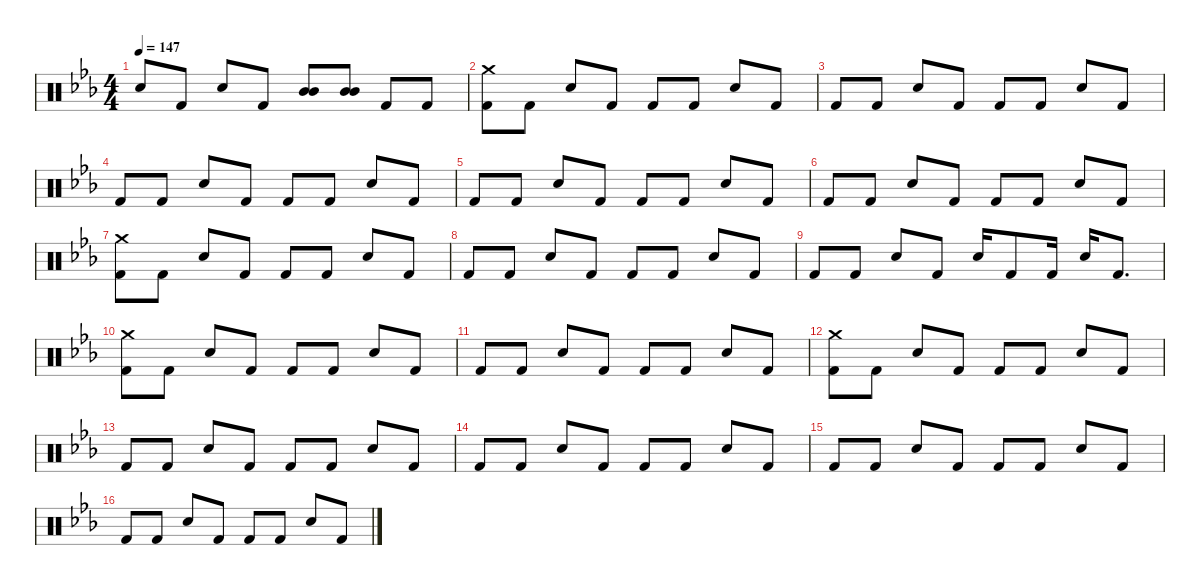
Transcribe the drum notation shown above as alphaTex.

\defaultSystemsLayout 4
\hideDynamics
\bracketExtendMode nobrackets
\singleTrackTrackNamePolicy hidden
\multiTrackTrackNamePolicy hidden
\firstSystemTrackNameMode fullname
\firstSystemTrackNameOrientation horizontal
\otherSystemsTrackNameOrientation horizontal
\track ("Beats" "drm.") {instrument percussion}
\staff {score}
\articulation defaults
\ts (4 4)
\tempo 147
\clef neutral
\ks eb "Snare (hit) 2"{acc forcenatural}.8{dy f beam Up} "Kick (hit) 2"{acc forcenatural}.8{beam Up} "Snare (hit) 2"{acc forcenatural}.8{beam Up} "Kick (hit) 2"{acc forcenatural}.8{beam Up}
("Mid Tom (hit)"{acc forcenatural} "Mid Tom (hit)"{acc forcenatural}).8{beam Up} ("Mid Tom (hit)"{acc forcenatural} "Mid Tom (hit)"{acc forcenatural}).8{beam Up} "Kick (hit) 2"{acc forcenatural}.8{beam Up} "Kick (hit) 2"{acc forcenatural}.8{beam Up} |
("Crash medium (hit)"{acc forcenatural} "Kick (hit) 2"{acc forcenatural}).8{beam Down} "Kick (hit) 2"{acc forcenatural}.8{beam Down} "Snare (hit) 2"{acc forcenatural}.8{beam Up} "Kick (hit) 2"{acc forcenatural}.8{beam Up} "Kick (hit) 2"{acc forcenatural}.8{beam Up} "Kick (hit) 2"{acc forcenatural}.8{beam Up} "Snare (hit) 2"{acc forcenatural}.8{beam Up} "Kick (hit) 2"{acc forcenatural}.8{beam Up} |
"Kick (hit) 2"{acc forcenatural}.8{beam Up} "Kick (hit) 2"{acc forcenatural}.8{beam Up} "Snare (hit) 2"{acc forcenatural}.8{beam Up} "Kick (hit) 2"{acc forcenatural}.8{beam Up} "Kick (hit) 2"{acc forcenatural}.8{beam Up} "Kick (hit) 2"{acc forcenatural}.8{beam Up} "Snare (hit) 2"{acc forcenatural}.8{beam Up} "Kick (hit) 2"{acc forcenatural}.8{beam Up} |
"Kick (hit) 2"{acc forcenatural}.8{beam Up} "Kick (hit) 2"{acc forcenatural}.8{beam Up} "Snare (hit) 2"{acc forcenatural}.8{beam Up} "Kick (hit) 2"{acc forcenatural}.8{beam Up} "Kick (hit) 2"{acc forcenatural}.8{beam Up} "Kick (hit) 2"{acc forcenatural}.8{beam Up} "Snare (hit) 2"{acc forcenatural}.8{beam Up} "Kick (hit) 2"{acc forcenatural}.8{beam Up} |
"Kick (hit) 2"{acc forcenatural}.8{beam Up} "Kick (hit) 2"{acc forcenatural}.8{beam Up} "Snare (hit) 2"{acc forcenatural}.8{beam Up} "Kick (hit) 2"{acc forcenatural}.8{beam Up} "Kick (hit) 2"{acc forcenatural}.8{beam Up} "Kick (hit) 2"{acc forcenatural}.8{beam Up} "Snare (hit) 2"{acc forcenatural}.8{beam Up} "Kick (hit) 2"{acc forcenatural}.8{beam Up} |
"Kick (hit) 2"{acc forcenatural}.8{beam Up} "Kick (hit) 2"{acc forcenatural}.8{beam Up} "Snare (hit) 2"{acc forcenatural}.8{beam Up} "Kick (hit) 2"{acc forcenatural}.8{beam Up} "Kick (hit) 2"{acc forcenatural}.8{beam Up} "Kick (hit) 2"{acc forcenatural}.8{beam Up} "Snare (hit) 2"{acc forcenatural}.8{beam Up} "Kick (hit) 2"{acc forcenatural}.8{beam Up} |
("Crash medium (hit)"{acc forcenatural} "Kick (hit) 2"{acc forcenatural}).8{beam Down} "Kick (hit) 2"{acc forcenatural}.8{beam Down} "Snare (hit) 2"{acc forcenatural}.8{beam Up} "Kick (hit) 2"{acc forcenatural}.8{beam Up} "Kick (hit) 2"{acc forcenatural}.8{beam Up} "Kick (hit) 2"{acc forcenatural}.8{beam Up} "Snare (hit) 2"{acc forcenatural}.8{beam Up} "Kick (hit) 2"{acc forcenatural}.8{beam Up} |
"Kick (hit) 2"{acc forcenatural}.8{beam Up} "Kick (hit) 2"{acc forcenatural}.8{beam Up} "Snare (hit) 2"{acc forcenatural}.8{beam Up} "Kick (hit) 2"{acc forcenatural}.8{beam Up} "Kick (hit) 2"{acc forcenatural}.8{beam Up} "Kick (hit) 2"{acc forcenatural}.8{beam Up} "Snare (hit) 2"{acc forcenatural}.8{beam Up} "Kick (hit) 2"{acc forcenatural}.8{beam Up} |
"Kick (hit) 2"{acc forcenatural}.8{beam Up} "Kick (hit) 2"{acc forcenatural}.8{beam Up} "Snare (hit) 2"{acc forcenatural}.8{beam Up} "Kick (hit) 2"{acc forcenatural}.8{beam Up} "Snare (hit) 2"{acc forcenatural}.16{beam Up} "Kick (hit) 2"{acc forcenatural}.8{beam Up} "Kick (hit) 2"{acc forcenatural}.16{beam Up} "Snare (hit) 2"{acc forcenatural}.16{beam Up} "Kick (hit) 2"{acc forcenatural}.8{d beam Up} |
("Crash medium (hit)"{acc forcenatural} "Kick (hit) 2"{acc forcenatural}).8{beam Down} "Kick (hit) 2"{acc forcenatural}.8{beam Down} "Snare (hit) 2"{acc forcenatural}.8{beam Up} "Kick (hit) 2"{acc forcenatural}.8{beam Up} "Kick (hit) 2"{acc forcenatural}.8{beam Up} "Kick (hit) 2"{acc forcenatural}.8{beam Up} "Snare (hit) 2"{acc forcenatural}.8{beam Up} "Kick (hit) 2"{acc forcenatural}.8{beam Up} |
"Kick (hit) 2"{acc forcenatural}.8{beam Up} "Kick (hit) 2"{acc forcenatural}.8{beam Up} "Snare (hit) 2"{acc forcenatural}.8{beam Up} "Kick (hit) 2"{acc forcenatural}.8{beam Up} "Kick (hit) 2"{acc forcenatural}.8{beam Up} "Kick (hit) 2"{acc forcenatural}.8{beam Up} "Snare (hit) 2"{acc forcenatural}.8{beam Up} "Kick (hit) 2"{acc forcenatural}.8{beam Up} |
("Crash medium (hit)"{acc forcenatural} "Kick (hit) 2"{acc forcenatural}).8{beam Down} "Kick (hit) 2"{acc forcenatural}.8{beam Down} "Snare (hit) 2"{acc forcenatural}.8{beam Up} "Kick (hit) 2"{acc forcenatural}.8{beam Up} "Kick (hit) 2"{acc forcenatural}.8{beam Up} "Kick (hit) 2"{acc forcenatural}.8{beam Up} "Snare (hit) 2"{acc forcenatural}.8{beam Up} "Kick (hit) 2"{acc forcenatural}.8{beam Up} |
"Kick (hit) 2"{acc forcenatural}.8{beam Up} "Kick (hit) 2"{acc forcenatural}.8{beam Up} "Snare (hit) 2"{acc forcenatural}.8{beam Up} "Kick (hit) 2"{acc forcenatural}.8{beam Up} "Kick (hit) 2"{acc forcenatural}.8{beam Up} "Kick (hit) 2"{acc forcenatural}.8{beam Up} "Snare (hit) 2"{acc forcenatural}.8{beam Up} "Kick (hit) 2"{acc forcenatural}.8{beam Up} |
"Kick (hit) 2"{acc forcenatural}.8{beam Up} "Kick (hit) 2"{acc forcenatural}.8{beam Up} "Snare (hit) 2"{acc forcenatural}.8{beam Up} "Kick (hit) 2"{acc forcenatural}.8{beam Up} "Kick (hit) 2"{acc forcenatural}.8{beam Up} "Kick (hit) 2"{acc forcenatural}.8{beam Up} "Snare (hit) 2"{acc forcenatural}.8{beam Up} "Kick (hit) 2"{acc forcenatural}.8{beam Up} |
"Kick (hit) 2"{acc forcenatural}.8{beam Up} "Kick (hit) 2"{acc forcenatural}.8{beam Up} "Snare (hit) 2"{acc forcenatural}.8{beam Up} "Kick (hit) 2"{acc forcenatural}.8{beam Up} "Kick (hit) 2"{acc forcenatural}.8{beam Up} "Kick (hit) 2"{acc forcenatural}.8{beam Up} "Snare (hit) 2"{acc forcenatural}.8{beam Up} "Kick (hit) 2"{acc forcenatural}.8{beam Up} |
"Kick (hit) 2"{acc forcenatural}.8{beam Up} "Kick (hit) 2"{acc forcenatural}.8{beam Up} "Snare (hit) 2"{acc forcenatural}.8{beam Up} "Kick (hit) 2"{acc forcenatural}.8{beam Up} "Kick (hit) 2"{acc forcenatural}.8{beam Up} "Kick (hit) 2"{acc forcenatural}.8{beam Up} "Snare (hit) 2"{acc forcenatural}.8{beam Up} "Kick (hit) 2"{acc forcenatural}.8{beam Up}
